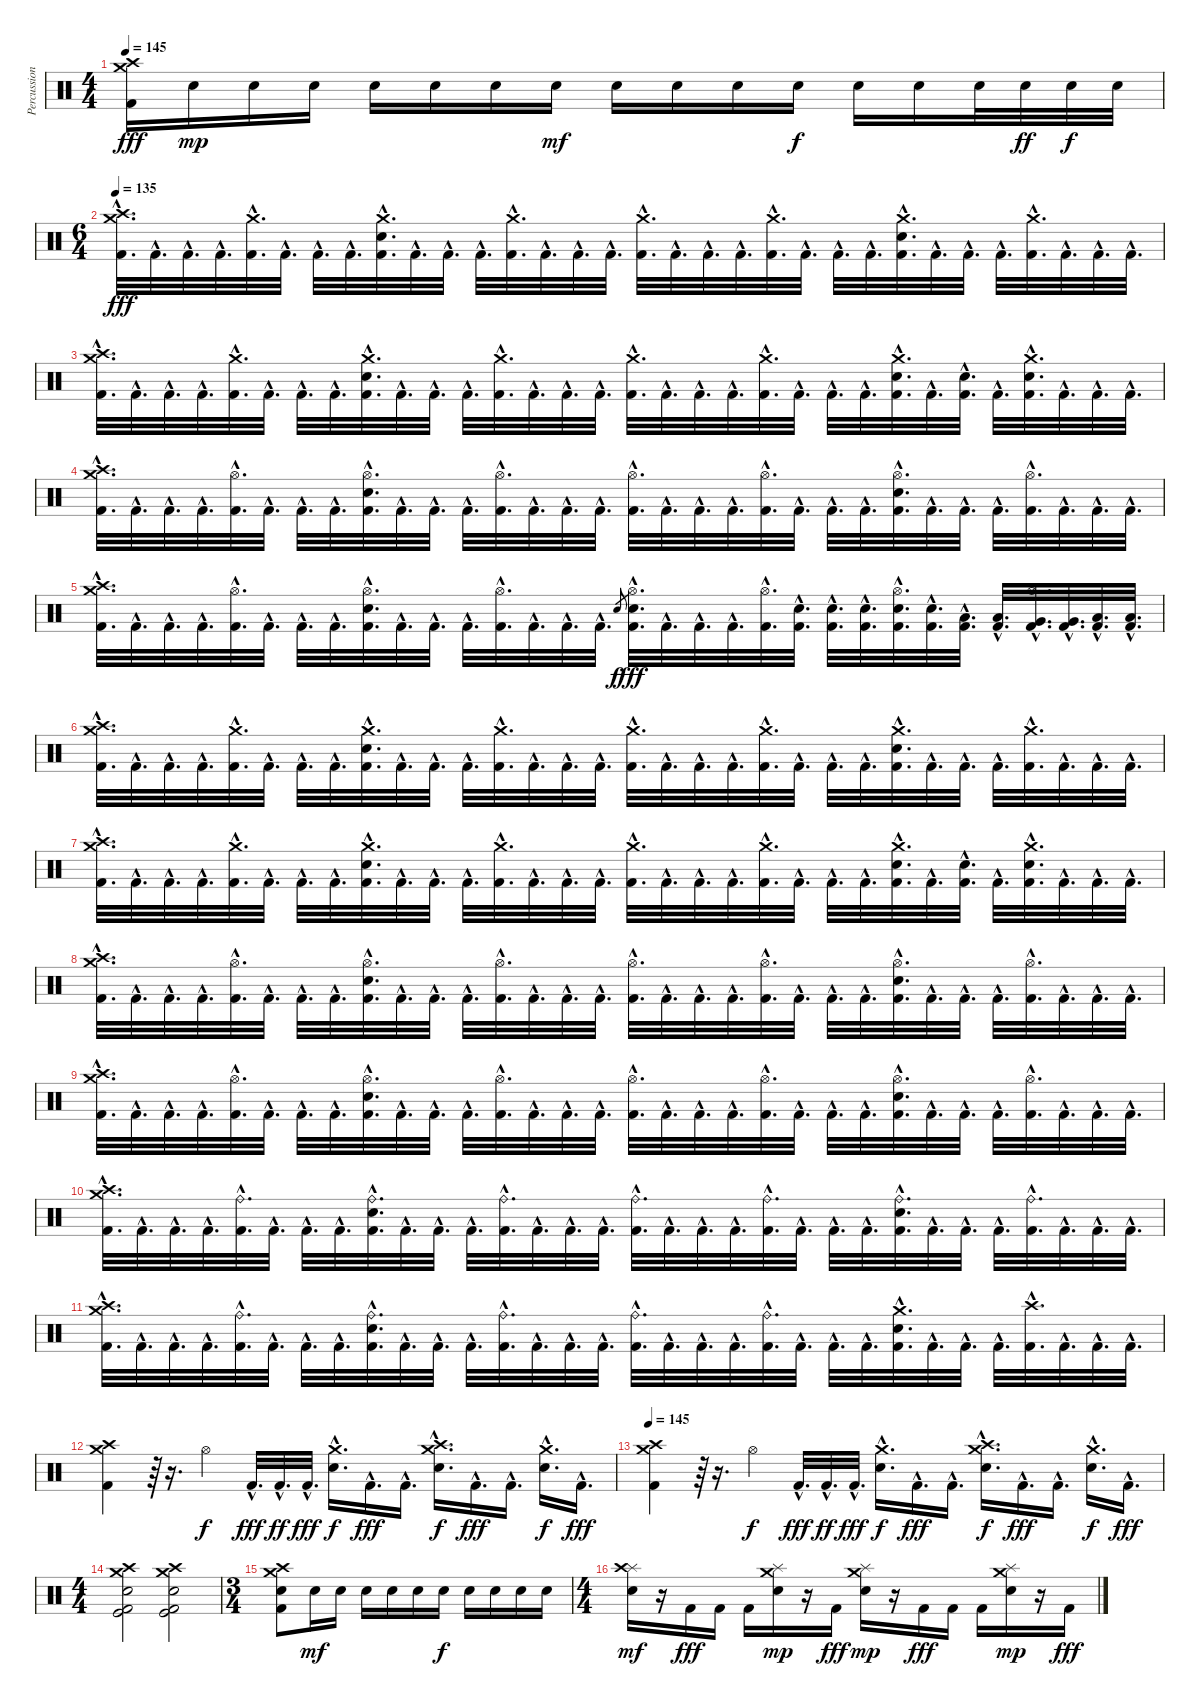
\track ("Percussions" "Percussion") {instrument percussion}
\staff {score}
\articulation defaults
\ts (4 4)
\tempo 145
\clef neutral
\ks c
("Crash medium (hit)" "Crash high (hit)" "Kick (hit) 2").16{dy fff} "Electric Snare (hit)".16{dy mp} "Electric Snare (hit)".16 "Electric Snare (hit)".16 "Electric Snare (hit)".16 "Electric Snare (hit)".16 "Electric Snare (hit)".16 "Electric Snare (hit)".16{dy mf} "Electric Snare (hit)".16 "Electric Snare (hit)".16 "Electric Snare (hit)".16 "Electric Snare (hit)".16{dy f} "Electric Snare (hit)".16 "Electric Snare (hit)".16 "Electric Snare (hit)".32 "Electric Snare (hit)".32{dy ff} "Electric Snare (hit)".32{dy f} "Electric Snare (hit)".32 |
\ts (6 4)
\tempo 135
("Crash medium (hit)"{hac} "Crash high (hit)"{hac} "Kick (hit) 2"{hac}).32{d dy fff} "Kick (hit) 2"{hac}.32{d} "Kick (hit) 2"{hac}.32{d} "Kick (hit) 2"{hac}.32{d} ("Crash medium (hit)"{hac} "Kick (hit) 2"{hac}).32{d} "Kick (hit) 2"{hac}.32{d} "Kick (hit) 2"{hac}.32{d} "Kick (hit) 2"{hac}.32{d} ("Crash medium (hit)"{hac} "Electric Snare (hit)"{hac} "Kick (hit) 2"{hac}).32{d} "Kick (hit) 2"{hac}.32{d} "Kick (hit) 2"{hac}.32{d} "Kick (hit) 2"{hac}.32{d} ("Crash medium (hit)"{hac} "Kick (hit) 2"{hac}).32{d} "Kick (hit) 2"{hac}.32{d} "Kick (hit) 2"{hac}.32{d} "Kick (hit) 2"{hac}.32{d} ("Crash medium (hit)"{hac} "Kick (hit) 2"{hac}).32{d} "Kick (hit) 2"{hac}.32{d} "Kick (hit) 2"{hac}.32{d} "Kick (hit) 2"{hac}.32{d} ("Crash medium (hit)"{hac} "Kick (hit) 2"{hac}).32{d} "Kick (hit) 2"{hac}.32{d} "Kick (hit) 2"{hac}.32{d} "Kick (hit) 2"{hac}.32{d} ("Crash medium (hit)"{hac} "Electric Snare (hit)"{hac} "Kick (hit) 2"{hac}).32{d} "Kick (hit) 2"{hac}.32{d} "Kick (hit) 2"{hac}.32{d} "Kick (hit) 2"{hac}.32{d} ("Crash medium (hit)"{hac} "Kick (hit) 2"{hac}).32{d} "Kick (hit) 2"{hac}.32{d} "Kick (hit) 2"{hac}.32{d} "Kick (hit) 2"{hac}.32{d} |
("Crash medium (hit)"{hac} "Crash high (hit)"{hac} "Kick (hit) 2"{hac}).32{d} "Kick (hit) 2"{hac}.32{d} "Kick (hit) 2"{hac}.32{d} "Kick (hit) 2"{hac}.32{d} ("Crash medium (hit)"{hac} "Kick (hit) 2"{hac}).32{d} "Kick (hit) 2"{hac}.32{d} "Kick (hit) 2"{hac}.32{d} "Kick (hit) 2"{hac}.32{d} ("Crash medium (hit)"{hac} "Electric Snare (hit)"{hac} "Kick (hit) 2"{hac}).32{d} "Kick (hit) 2"{hac}.32{d} "Kick (hit) 2"{hac}.32{d} "Kick (hit) 2"{hac}.32{d} ("Crash medium (hit)"{hac} "Kick (hit) 2"{hac}).32{d} "Kick (hit) 2"{hac}.32{d} "Kick (hit) 2"{hac}.32{d} "Kick (hit) 2"{hac}.32{d} ("Crash medium (hit)"{hac} "Kick (hit) 2"{hac}).32{d} "Kick (hit) 2"{hac}.32{d} "Kick (hit) 2"{hac}.32{d} "Kick (hit) 2"{hac}.32{d} ("Crash medium (hit)"{hac} "Kick (hit) 2"{hac}).32{d} "Kick (hit) 2"{hac}.32{d} "Kick (hit) 2"{hac}.32{d} "Kick (hit) 2"{hac}.32{d} ("Crash medium (hit)"{hac} "Electric Snare (hit)"{hac} "Kick (hit) 2"{hac}).32{d} "Kick (hit) 2"{hac}.32{d} ("Electric Snare (hit)"{hac} "Kick (hit) 2"{hac}).32{d} "Kick (hit) 2"{hac}.32{d} ("Crash medium (hit)"{hac} "Electric Snare (hit)"{hac} "Kick (hit) 2"{hac}).32{d} "Kick (hit) 2"{hac}.32{d} "Kick (hit) 2"{hac}.32{d} "Kick (hit) 2"{hac}.32{d} |
("Crash medium (hit)"{hac} "Crash high (hit)"{hac} "Kick (hit) 2"{hac}).32{d} "Kick (hit) 2"{hac}.32{d} "Kick (hit) 2"{hac}.32{d} "Kick (hit) 2"{hac}.32{d} ("Hi-Hat (open)"{hac} "Kick (hit) 2"{hac}).32{d} "Kick (hit) 2"{hac}.32{d} "Kick (hit) 2"{hac}.32{d} "Kick (hit) 2"{hac}.32{d} ("Hi-Hat (open)"{hac} "Electric Snare (hit)"{hac} "Kick (hit) 2"{hac}).32{d} "Kick (hit) 2"{hac}.32{d} "Kick (hit) 2"{hac}.32{d} "Kick (hit) 2"{hac}.32{d} ("Hi-Hat (open)"{hac} "Kick (hit) 2"{hac}).32{d} "Kick (hit) 2"{hac}.32{d} "Kick (hit) 2"{hac}.32{d} "Kick (hit) 2"{hac}.32{d} ("Hi-Hat (open)"{hac} "Kick (hit) 2"{hac}).32{d} "Kick (hit) 2"{hac}.32{d} "Kick (hit) 2"{hac}.32{d} "Kick (hit) 2"{hac}.32{d} ("Hi-Hat (open)"{hac} "Kick (hit) 2"{hac}).32{d} "Kick (hit) 2"{hac}.32{d} "Kick (hit) 2"{hac}.32{d} "Kick (hit) 2"{hac}.32{d} ("Hi-Hat (open)"{hac} "Electric Snare (hit)"{hac} "Kick (hit) 2"{hac}).32{d} "Kick (hit) 2"{hac}.32{d} "Kick (hit) 2"{hac}.32{d} "Kick (hit) 2"{hac}.32{d} ("Hi-Hat (open)"{hac} "Kick (hit) 2"{hac}).32{d} "Kick (hit) 2"{hac}.32{d} "Kick (hit) 2"{hac}.32{d} "Kick (hit) 2"{hac}.32{d} |
("Crash medium (hit)"{hac} "Crash high (hit)"{hac} "Kick (hit) 2"{hac}).32{d} "Kick (hit) 2"{hac}.32{d} "Kick (hit) 2"{hac}.32{d} "Kick (hit) 2"{hac}.32{d} ("Hi-Hat (open)"{hac} "Kick (hit) 2"{hac}).32{d} "Kick (hit) 2"{hac}.32{d} "Kick (hit) 2"{hac}.32{d} "Kick (hit) 2"{hac}.32{d} ("Hi-Hat (open)"{hac} "Electric Snare (hit)"{hac} "Kick (hit) 2"{hac}).32{d} "Kick (hit) 2"{hac}.32{d} "Kick (hit) 2"{hac}.32{d} "Kick (hit) 2"{hac}.32{d} ("Hi-Hat (open)"{hac} "Kick (hit) 2"{hac}).32{d} "Kick (hit) 2"{hac}.32{d} "Kick (hit) 2"{hac}.32{d} "Kick (hit) 2"{hac}.32{d} "Electric Snare (hit)".8{gr dy f} ("Hi-Hat (open)"{hac} "Electric Snare (hit)"{hac} "Kick (hit) 2"{hac}).32{d dy fff} "Kick (hit) 2"{hac}.32{d} "Kick (hit) 2"{hac}.32{d} "Kick (hit) 2"{hac}.32{d} ("Hi-Hat (open)"{hac} "Kick (hit) 2"{hac}).32{d} ("Electric Snare (hit)"{hac} "Kick (hit) 2"{hac}).32{d} ("Electric Snare (hit)"{hac} "Kick (hit) 2"{hac}).32{d} ("Electric Snare (hit)"{hac} "Kick (hit) 2"{hac}).32{d} ("Hi-Hat (open)"{hac} "Electric Snare (hit)"{hac} "Kick (hit) 2"{hac}).32{d} ("Electric Snare (hit)"{hac} "Kick (hit) 2"{hac}).32{d} ("Low Floor Tom (hit)"{hac} "Kick (hit) 2"{hac}).32{d} ("Low Floor Tom (hit)"{hac} "Kick (hit) 2"{hac}).32{d} ("Hi-Hat (open)"{hac} "Very Low Tom (hit)"{hac} "Kick (hit) 2"{hac}).32{d} ("Very Low Tom (hit)"{hac} "Kick (hit) 2"{hac}).32{d} ("Low Tom (hit)"{hac} "Kick (hit) 2"{hac}).32{d} ("Low Tom (hit)"{hac} "Kick (hit) 2"{hac}).32{d} |
("Crash medium (hit)"{hac} "Crash high (hit)"{hac} "Kick (hit) 2"{hac}).32{d} "Kick (hit) 2"{hac}.32{d} "Kick (hit) 2"{hac}.32{d} "Kick (hit) 2"{hac}.32{d} ("Crash medium (hit)"{hac} "Kick (hit) 2"{hac}).32{d} "Kick (hit) 2"{hac}.32{d} "Kick (hit) 2"{hac}.32{d} "Kick (hit) 2"{hac}.32{d} ("Crash medium (hit)"{hac} "Electric Snare (hit)"{hac} "Kick (hit) 2"{hac}).32{d} "Kick (hit) 2"{hac}.32{d} "Kick (hit) 2"{hac}.32{d} "Kick (hit) 2"{hac}.32{d} ("Crash medium (hit)"{hac} "Kick (hit) 2"{hac}).32{d} "Kick (hit) 2"{hac}.32{d} "Kick (hit) 2"{hac}.32{d} "Kick (hit) 2"{hac}.32{d} ("Crash medium (hit)"{hac} "Kick (hit) 2"{hac}).32{d} "Kick (hit) 2"{hac}.32{d} "Kick (hit) 2"{hac}.32{d} "Kick (hit) 2"{hac}.32{d} ("Crash medium (hit)"{hac} "Kick (hit) 2"{hac}).32{d} "Kick (hit) 2"{hac}.32{d} "Kick (hit) 2"{hac}.32{d} "Kick (hit) 2"{hac}.32{d} ("Crash medium (hit)"{hac} "Electric Snare (hit)"{hac} "Kick (hit) 2"{hac}).32{d} "Kick (hit) 2"{hac}.32{d} "Kick (hit) 2"{hac}.32{d} "Kick (hit) 2"{hac}.32{d} ("Crash medium (hit)"{hac} "Kick (hit) 2"{hac}).32{d} "Kick (hit) 2"{hac}.32{d} "Kick (hit) 2"{hac}.32{d} "Kick (hit) 2"{hac}.32{d} |
("Crash medium (hit)"{hac} "Crash high (hit)"{hac} "Kick (hit) 2"{hac}).32{d} "Kick (hit) 2"{hac}.32{d} "Kick (hit) 2"{hac}.32{d} "Kick (hit) 2"{hac}.32{d} ("Crash medium (hit)"{hac} "Kick (hit) 2"{hac}).32{d} "Kick (hit) 2"{hac}.32{d} "Kick (hit) 2"{hac}.32{d} "Kick (hit) 2"{hac}.32{d} ("Crash medium (hit)"{hac} "Electric Snare (hit)"{hac} "Kick (hit) 2"{hac}).32{d} "Kick (hit) 2"{hac}.32{d} "Kick (hit) 2"{hac}.32{d} "Kick (hit) 2"{hac}.32{d} ("Crash medium (hit)"{hac} "Kick (hit) 2"{hac}).32{d} "Kick (hit) 2"{hac}.32{d} "Kick (hit) 2"{hac}.32{d} "Kick (hit) 2"{hac}.32{d} ("Crash medium (hit)"{hac} "Kick (hit) 2"{hac}).32{d} "Kick (hit) 2"{hac}.32{d} "Kick (hit) 2"{hac}.32{d} "Kick (hit) 2"{hac}.32{d} ("Crash medium (hit)"{hac} "Kick (hit) 2"{hac}).32{d} "Kick (hit) 2"{hac}.32{d} "Kick (hit) 2"{hac}.32{d} "Kick (hit) 2"{hac}.32{d} ("Crash medium (hit)"{hac} "Electric Snare (hit)"{hac} "Kick (hit) 2"{hac}).32{d} "Kick (hit) 2"{hac}.32{d} ("Electric Snare (hit)"{hac} "Kick (hit) 2"{hac}).32{d} "Kick (hit) 2"{hac}.32{d} ("Crash medium (hit)"{hac} "Electric Snare (hit)"{hac} "Kick (hit) 2"{hac}).32{d} "Kick (hit) 2"{hac}.32{d} "Kick (hit) 2"{hac}.32{d} "Kick (hit) 2"{hac}.32{d} |
("Crash medium (hit)"{hac} "Crash high (hit)"{hac} "Kick (hit) 2"{hac}).32{d} "Kick (hit) 2"{hac}.32{d} "Kick (hit) 2"{hac}.32{d} "Kick (hit) 2"{hac}.32{d} ("Hi-Hat (open)"{hac} "Kick (hit) 2"{hac}).32{d} "Kick (hit) 2"{hac}.32{d} "Kick (hit) 2"{hac}.32{d} "Kick (hit) 2"{hac}.32{d} ("Hi-Hat (open)"{hac} "Electric Snare (hit)"{hac} "Kick (hit) 2"{hac}).32{d} "Kick (hit) 2"{hac}.32{d} "Kick (hit) 2"{hac}.32{d} "Kick (hit) 2"{hac}.32{d} ("Hi-Hat (open)"{hac} "Kick (hit) 2"{hac}).32{d} "Kick (hit) 2"{hac}.32{d} "Kick (hit) 2"{hac}.32{d} "Kick (hit) 2"{hac}.32{d} ("Hi-Hat (open)"{hac} "Kick (hit) 2"{hac}).32{d} "Kick (hit) 2"{hac}.32{d} "Kick (hit) 2"{hac}.32{d} "Kick (hit) 2"{hac}.32{d} ("Hi-Hat (open)"{hac} "Kick (hit) 2"{hac}).32{d} "Kick (hit) 2"{hac}.32{d} "Kick (hit) 2"{hac}.32{d} "Kick (hit) 2"{hac}.32{d} ("Hi-Hat (open)"{hac} "Electric Snare (hit)"{hac} "Kick (hit) 2"{hac}).32{d} "Kick (hit) 2"{hac}.32{d} "Kick (hit) 2"{hac}.32{d} "Kick (hit) 2"{hac}.32{d} ("Hi-Hat (open)"{hac} "Kick (hit) 2"{hac}).32{d} "Kick (hit) 2"{hac}.32{d} "Kick (hit) 2"{hac}.32{d} "Kick (hit) 2"{hac}.32{d} |
("Crash medium (hit)"{hac} "Crash high (hit)"{hac} "Kick (hit) 2"{hac}).32{d} "Kick (hit) 2"{hac}.32{d} "Kick (hit) 2"{hac}.32{d} "Kick (hit) 2"{hac}.32{d} ("Hi-Hat (open)"{hac} "Kick (hit) 2"{hac}).32{d} "Kick (hit) 2"{hac}.32{d} "Kick (hit) 2"{hac}.32{d} "Kick (hit) 2"{hac}.32{d} ("Hi-Hat (open)"{hac} "Electric Snare (hit)"{hac} "Kick (hit) 2"{hac}).32{d} "Kick (hit) 2"{hac}.32{d} "Kick (hit) 2"{hac}.32{d} "Kick (hit) 2"{hac}.32{d} ("Hi-Hat (open)"{hac} "Kick (hit) 2"{hac}).32{d} "Kick (hit) 2"{hac}.32{d} "Kick (hit) 2"{hac}.32{d} "Kick (hit) 2"{hac}.32{d} ("Hi-Hat (open)"{hac} "Kick (hit) 2"{hac}).32{d} "Kick (hit) 2"{hac}.32{d} "Kick (hit) 2"{hac}.32{d} "Kick (hit) 2"{hac}.32{d} ("Hi-Hat (open)"{hac} "Kick (hit) 2"{hac}).32{d} "Kick (hit) 2"{hac}.32{d} "Kick (hit) 2"{hac}.32{d} "Kick (hit) 2"{hac}.32{d} ("Hi-Hat (open)"{hac} "Electric Snare (hit)"{hac} "Kick (hit) 2"{hac}).32{d} "Kick (hit) 2"{hac}.32{d} "Kick (hit) 2"{hac}.32{d} "Kick (hit) 2"{hac}.32{d} ("Hi-Hat (open)"{hac} "Kick (hit) 2"{hac}).32{d} "Kick (hit) 2"{hac}.32{d} "Kick (hit) 2"{hac}.32{d} "Kick (hit) 2"{hac}.32{d} |
("Crash medium (hit)"{hac} "Crash high (hit)"{hac} "Kick (hit) 2"{hac}).32{d} "Kick (hit) 2"{hac}.32{d} "Kick (hit) 2"{hac}.32{d} "Kick (hit) 2"{hac}.32{d} ("Ride (bell)"{hac} "Kick (hit) 2"{hac}).32{d} "Kick (hit) 2"{hac}.32{d} "Kick (hit) 2"{hac}.32{d} "Kick (hit) 2"{hac}.32{d} ("Ride (bell)"{hac} "Electric Snare (hit)"{hac} "Kick (hit) 2"{hac}).32{d} "Kick (hit) 2"{hac}.32{d} "Kick (hit) 2"{hac}.32{d} "Kick (hit) 2"{hac}.32{d} ("Ride (bell)"{hac} "Kick (hit) 2"{hac}).32{d} "Kick (hit) 2"{hac}.32{d} "Kick (hit) 2"{hac}.32{d} "Kick (hit) 2"{hac}.32{d} ("Ride (bell)"{hac} "Kick (hit) 2"{hac}).32{d} "Kick (hit) 2"{hac}.32{d} "Kick (hit) 2"{hac}.32{d} "Kick (hit) 2"{hac}.32{d} ("Ride (bell)"{hac} "Kick (hit) 2"{hac}).32{d} "Kick (hit) 2"{hac}.32{d} "Kick (hit) 2"{hac}.32{d} "Kick (hit) 2"{hac}.32{d} ("Ride (bell)"{hac} "Electric Snare (hit)"{hac} "Kick (hit) 2"{hac}).32{d} "Kick (hit) 2"{hac}.32{d} "Kick (hit) 2"{hac}.32{d} "Kick (hit) 2"{hac}.32{d} ("Ride (bell)"{hac} "Kick (hit) 2"{hac}).32{d} "Kick (hit) 2"{hac}.32{d} "Kick (hit) 2"{hac}.32{d} "Kick (hit) 2"{hac}.32{d} |
("Crash medium (hit)"{hac} "Crash high (hit)"{hac} "Kick (hit) 2"{hac}).32{d} "Kick (hit) 2"{hac}.32{d} "Kick (hit) 2"{hac}.32{d} "Kick (hit) 2"{hac}.32{d} ("Ride (bell)"{hac} "Kick (hit) 2"{hac}).32{d} "Kick (hit) 2"{hac}.32{d} "Kick (hit) 2"{hac}.32{d} "Kick (hit) 2"{hac}.32{d} ("Ride (bell)"{hac} "Electric Snare (hit)"{hac} "Kick (hit) 2"{hac}).32{d} "Kick (hit) 2"{hac}.32{d} "Kick (hit) 2"{hac}.32{d} "Kick (hit) 2"{hac}.32{d} ("Ride (bell)"{hac} "Kick (hit) 2"{hac}).32{d} "Kick (hit) 2"{hac}.32{d} "Kick (hit) 2"{hac}.32{d} "Kick (hit) 2"{hac}.32{d} ("Ride (bell)"{hac} "Kick (hit) 2"{hac}).32{d} "Kick (hit) 2"{hac}.32{d} "Kick (hit) 2"{hac}.32{d} "Kick (hit) 2"{hac}.32{d} ("Ride (bell)"{hac} "Kick (hit) 2"{hac}).32{d} "Kick (hit) 2"{hac}.32{d} "Kick (hit) 2"{hac}.32{d} "Kick (hit) 2"{hac}.32{d} ("Crash medium (hit)"{hac} "Electric Snare (hit)"{hac} "Kick (hit) 2"{hac}).32{d} "Kick (hit) 2"{hac}.32{d} "Kick (hit) 2"{hac}.32{d} "Kick (hit) 2"{hac}.32{d} ("Crash high (hit)"{hac} "Kick (hit) 2"{hac}).32{d} "Kick (hit) 2"{hac}.32{d} "Kick (hit) 2"{hac}.32{d} "Kick (hit) 2"{hac}.32{d} |
("Crash medium (hit)" "Crash high (hit)" "Kick (hit) 2").4 r.64 r.16{d} "Hi-Hat (open)".4{dy f} "Kick (hit) 2"{hac}.32{d dy fff} "Kick (hit) 2"{hac}.32{d dy ff} "Kick (hit) 2"{hac}.32{d dy fff} ("Crash medium (hit)"{hac} "Electric Snare (hit)"{hac}).16{d dy f} "Kick (hit) 2"{hac}.16{d dy fff} "Kick (hit) 2"{hac}.16{d} ("Crash medium (hit)"{hac} "Crash high (hit)"{hac} "Electric Snare (hit)"{hac}).16{d dy f} "Kick (hit) 2"{hac}.16{d dy fff} "Kick (hit) 2"{hac}.16{d} ("Crash medium (hit)"{hac} "Electric Snare (hit)"{hac}).16{d dy f} "Kick (hit) 2"{hac}.16{d dy fff} |
\tempo 145
("Crash medium (hit)" "Crash high (hit)" "Kick (hit) 2").4 r.64 r.16{d} "Hi-Hat (open)".4{dy f} "Kick (hit) 2"{hac}.32{d dy fff} "Kick (hit) 2"{hac}.32{d dy ff} "Kick (hit) 2"{hac}.32{d dy fff} ("Crash medium (hit)"{hac} "Electric Snare (hit)"{hac}).16{d dy f} "Kick (hit) 2"{hac}.16{d dy fff} "Kick (hit) 2"{hac}.16{d} ("Crash medium (hit)"{hac} "Crash high (hit)"{hac} "Electric Snare (hit)"{hac}).16{d dy f} "Kick (hit) 2"{hac}.16{d dy fff} "Kick (hit) 2"{hac}.16{d} ("Crash medium (hit)"{hac} "Electric Snare (hit)"{hac}).16{d dy f} "Kick (hit) 2"{hac}.16{d dy fff} |
\ts (4 4)
("Crash medium (hit)" "Crash high (hit)" "Electric Snare (hit)" "Kick (hit)" "Kick (hit) 2").2 ("Crash medium (hit)" "Crash high (hit)" "Electric Snare (hit)" "Kick (hit)" "Kick (hit) 2").2 |
\ts (3 4)
("Crash medium (hit)" "Crash high (hit)" "Electric Snare (hit)" "Kick (hit) 2").8 "Electric Snare (hit)".16{dy mf} "Electric Snare (hit)".16 "Electric Snare (hit)".16 "Electric Snare (hit)".16 "Electric Snare (hit)".16 "Electric Snare (hit)".16{dy f} "Electric Snare (hit)".16 "Electric Snare (hit)".16 "Electric Snare (hit)".16 "Electric Snare (hit)".16 |
\ts (4 4)
("Splash (hit)" "Crash high (hit)" "Electric Snare (hit)").16{dy mf} r.16 "Kick (hit) 2".16{dy fff} "Kick (hit) 2".16 "Kick (hit) 2".16 ("Splash (hit)" "Crash medium (hit)" "Electric Snare (hit)").16{dy mp} r.16 "Kick (hit) 2".16{dy fff} ("Splash (hit)" "Crash medium (hit)" "Electric Snare (hit)").16{dy mp} r.16 "Kick (hit) 2".16{dy fff} "Kick (hit) 2".16 "Kick (hit) 2".16 ("Splash (hit)" "Crash medium (hit)" "Electric Snare (hit)").16{dy mp} r.16 "Kick (hit) 2".16{dy fff}
